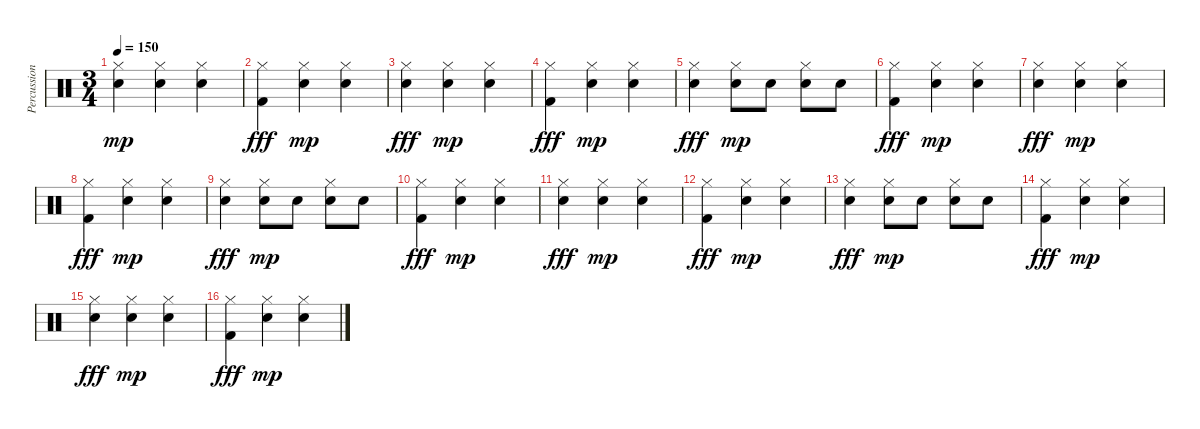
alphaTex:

\track ("Percussion" "Percussion") {instrument percussion}
\staff {score}
\articulation defaults
\ts (3 4)
\tempo 150
\clef neutral
\ks c
("Hi-Hat (closed)" "Electric Snare (hit)").4{dy mp} ("Hi-Hat (closed)" "Electric Snare (hit)").4 ("Hi-Hat (closed)" "Electric Snare (hit)").4 |
("Hi-Hat (closed)" "Kick (hit) 2").4{dy fff} ("Hi-Hat (closed)" "Electric Snare (hit)").4{dy mp} ("Hi-Hat (closed)" "Electric Snare (hit)").4 |
("Hi-Hat (closed)" "Electric Snare (hit)").4{dy fff} ("Hi-Hat (closed)" "Electric Snare (hit)").4{dy mp} ("Hi-Hat (closed)" "Electric Snare (hit)").4 |
("Hi-Hat (closed)" "Kick (hit) 2").4{dy fff} ("Hi-Hat (closed)" "Electric Snare (hit)").4{dy mp} ("Hi-Hat (closed)" "Electric Snare (hit)").4 |
("Hi-Hat (closed)" "Electric Snare (hit)").4{dy fff} ("Hi-Hat (closed)" "Electric Snare (hit)").8{dy mp} "Electric Snare (hit)".8 ("Hi-Hat (closed)" "Electric Snare (hit)").8 "Electric Snare (hit)".8 |
("Hi-Hat (closed)" "Kick (hit) 2").4{dy fff} ("Hi-Hat (closed)" "Electric Snare (hit)").4{dy mp} ("Hi-Hat (closed)" "Electric Snare (hit)").4 |
("Hi-Hat (closed)" "Electric Snare (hit)").4{dy fff} ("Hi-Hat (closed)" "Electric Snare (hit)").4{dy mp} ("Hi-Hat (closed)" "Electric Snare (hit)").4 |
("Hi-Hat (closed)" "Kick (hit) 2").4{dy fff} ("Hi-Hat (closed)" "Electric Snare (hit)").4{dy mp} ("Hi-Hat (closed)" "Electric Snare (hit)").4 |
("Hi-Hat (closed)" "Electric Snare (hit)").4{dy fff} ("Hi-Hat (closed)" "Electric Snare (hit)").8{dy mp} "Electric Snare (hit)".8 ("Hi-Hat (closed)" "Electric Snare (hit)").8 "Electric Snare (hit)".8 |
("Hi-Hat (closed)" "Kick (hit) 2").4{dy fff} ("Hi-Hat (closed)" "Electric Snare (hit)").4{dy mp} ("Hi-Hat (closed)" "Electric Snare (hit)").4 |
("Hi-Hat (closed)" "Electric Snare (hit)").4{dy fff} ("Hi-Hat (closed)" "Electric Snare (hit)").4{dy mp} ("Hi-Hat (closed)" "Electric Snare (hit)").4 |
("Hi-Hat (closed)" "Kick (hit) 2").4{dy fff} ("Hi-Hat (closed)" "Electric Snare (hit)").4{dy mp} ("Hi-Hat (closed)" "Electric Snare (hit)").4 |
("Hi-Hat (closed)" "Electric Snare (hit)").4{dy fff} ("Hi-Hat (closed)" "Electric Snare (hit)").8{dy mp} "Electric Snare (hit)".8 ("Hi-Hat (closed)" "Electric Snare (hit)").8 "Electric Snare (hit)".8 |
("Hi-Hat (closed)" "Kick (hit) 2").4{dy fff} ("Hi-Hat (closed)" "Electric Snare (hit)").4{dy mp} ("Hi-Hat (closed)" "Electric Snare (hit)").4 |
("Hi-Hat (closed)" "Electric Snare (hit)").4{dy fff} ("Hi-Hat (closed)" "Electric Snare (hit)").4{dy mp} ("Hi-Hat (closed)" "Electric Snare (hit)").4 |
("Hi-Hat (closed)" "Kick (hit) 2").4{dy fff} ("Hi-Hat (closed)" "Electric Snare (hit)").4{dy mp} ("Hi-Hat (closed)" "Electric Snare (hit)").4
